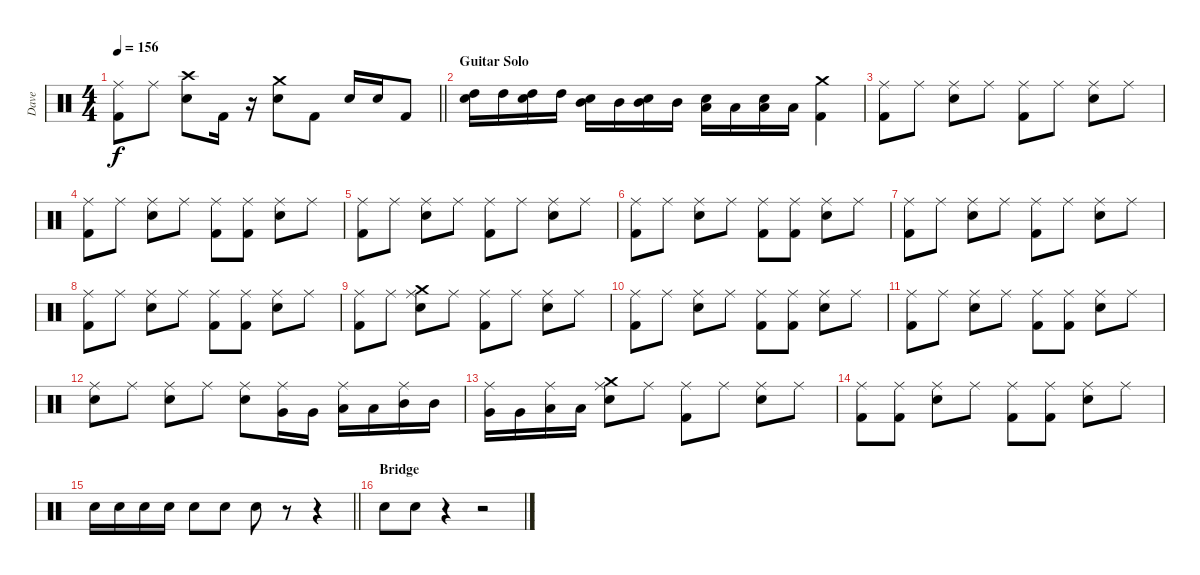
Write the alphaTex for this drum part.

\track ("Dave" "Dave") {instrument percussion}
\staff {score}
\articulation defaults
\ts (4 4)
\tempo 156
\clef neutral
\barLineRight lightlight
\ks c
("Ride (middle)" "Kick (hit) 2").8{dy f} "Ride (middle)".8 ("Crash high (hit)" "Electric Snare (hit)").8 "Kick (hit) 2".16 r.16 ("Crash medium (hit)" "Electric Snare (hit)").8 "Kick (hit) 2".8 "Electric Snare (hit)".16 "Electric Snare (hit)".16 "Kick (hit) 2".8 |
\section ("" "Guitar Solo")
("Electric Snare (hit)" "High Tom (hit)").16 "High Tom (hit)".16 ("Electric Snare (hit)" "High Tom (hit)").16 "High Tom (hit)".16 ("Electric Snare (hit)" "Mid Tom (hit)").16 "Mid Tom (hit)".16 ("Electric Snare (hit)" "Mid Tom (hit)").16 "Mid Tom (hit)".16 ("Electric Snare (hit)" "Low Tom (hit)").16 "Low Tom (hit)".16 ("Electric Snare (hit)" "Low Tom (hit)").16 "Low Tom (hit)".16 ("Crash medium (hit)" "Kick (hit) 2").4 |
("Kick (hit) 2" "Ride (middle)").8 "Ride (middle)".8 ("Electric Snare (hit)" "Ride (middle)").8 "Ride (middle)".8 ("Kick (hit) 2" "Ride (middle)").8 "Ride (middle)".8 ("Electric Snare (hit)" "Ride (middle)").8 "Ride (middle)".8 |
("Kick (hit) 2" "Ride (middle)").8 "Ride (middle)".8 ("Electric Snare (hit)" "Ride (middle)").8 "Ride (middle)".8 ("Kick (hit) 2" "Ride (middle)").8 ("Kick (hit) 2" "Ride (middle)").8 ("Electric Snare (hit)" "Ride (middle)").8 "Ride (middle)".8 |
("Ride (middle)" "Kick (hit) 2").8 "Ride (middle)".8 ("Electric Snare (hit)" "Ride (middle)").8 "Ride (middle)".8 ("Kick (hit) 2" "Ride (middle)").8 "Ride (middle)".8 ("Electric Snare (hit)" "Ride (middle)").8 "Ride (middle)".8 |
("Kick (hit) 2" "Ride (middle)").8 "Ride (middle)".8 ("Electric Snare (hit)" "Ride (middle)").8 "Ride (middle)".8 ("Kick (hit) 2" "Ride (middle)").8 ("Kick (hit) 2" "Ride (middle)").8 ("Electric Snare (hit)" "Ride (middle)").8 "Ride (middle)".8 |
("Ride (middle)" "Kick (hit) 2").8 "Ride (middle)".8 ("Electric Snare (hit)" "Ride (middle)").8 "Ride (middle)".8 ("Kick (hit) 2" "Ride (middle)").8 "Ride (middle)".8 ("Electric Snare (hit)" "Ride (middle)").8 "Ride (middle)".8 |
("Kick (hit) 2" "Ride (middle)").8 "Ride (middle)".8 ("Electric Snare (hit)" "Ride (middle)").8 "Ride (middle)".8 ("Ride (middle)" "Kick (hit) 2").8 ("Ride (middle)" "Kick (hit) 2").8 ("Ride (middle)" "Electric Snare (hit)").8 "Ride (middle)".8 |
("Ride (middle)" "Kick (hit) 2").8 "Ride (middle)".8 ("Ride (middle)" "Crash medium (hit)" "Electric Snare (hit)").8 "Ride (middle)".8 ("Kick (hit) 2" "Ride (middle)").8 "Ride (middle)".8 ("Electric Snare (hit)" "Ride (middle)").8 "Ride (middle)".8 |
("Kick (hit) 2" "Ride (middle)").8 "Ride (middle)".8 ("Electric Snare (hit)" "Ride (middle)").8 "Ride (middle)".8 ("Kick (hit) 2" "Ride (middle)").8 ("Kick (hit) 2" "Ride (middle)").8 ("Electric Snare (hit)" "Ride (middle)").8 "Ride (middle)".8 |
("Ride (middle)" "Kick (hit) 2").8 "Ride (middle)".8 ("Electric Snare (hit)" "Ride (middle)").8 "Ride (middle)".8 ("Kick (hit) 2" "Ride (middle)").8 ("Kick (hit) 2" "Ride (middle)").8 ("Electric Snare (hit)" "Ride (middle)").8 "Ride (middle)".8 |
("Ride (middle)" "Electric Snare (hit)").8 "Ride (middle)".8 ("Electric Snare (hit)" "Ride (middle)").8 "Ride (middle)".8 ("Ride (middle)" "Electric Snare (hit)").8 ("Ride (middle)" "Very Low Tom (hit)").16 "Very Low Tom (hit)".16 ("Ride (middle)" "Low Tom (hit)").16 "Low Tom (hit)".16 ("Ride (middle)" "Mid Tom (hit)").16 "Mid Tom (hit)".16 |
("Ride (middle)" "Very Low Tom (hit)").16 "Very Low Tom (hit)".16 ("Ride (middle)" "Low Tom (hit)").16 "Low Tom (hit)".16 ("Ride (middle)" "Crash medium (hit)" "Electric Snare (hit)").8 "Ride (middle)".8 ("Kick (hit) 2" "Ride (middle)").8 "Ride (middle)".8 ("Electric Snare (hit)" "Ride (middle)").8 "Ride (middle)".8 |
("Kick (hit) 2" "Ride (middle)").8 ("Kick (hit) 2" "Ride (middle)").8 ("Electric Snare (hit)" "Ride (middle)").8 "Ride (middle)".8 ("Kick (hit) 2" "Ride (middle)").8 ("Kick (hit) 2" "Ride (middle)").8 ("Electric Snare (hit)" "Ride (middle)").8 "Ride (middle)".8 |
\barLineRight lightlight "Electric Snare (hit)".16 "Electric Snare (hit)".16 "Electric Snare (hit)".16 "Electric Snare (hit)".16 "Electric Snare (hit)".8 "Electric Snare (hit)".8 "Electric Snare (hit)".8
r.8 r.4 |
\section ("" "Bridge")
"Electric Snare (hit)".8 "Electric Snare (hit)".8 r.4 r.2
